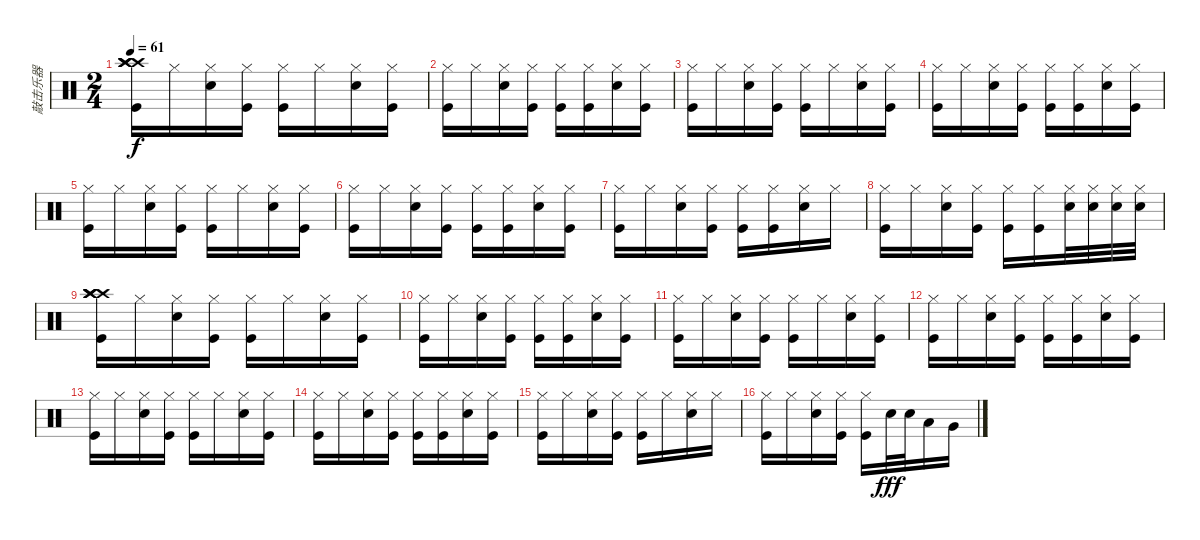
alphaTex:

\track ("敲击乐器" "敲击乐器") {instrument percussion}
\staff {score}
\articulation defaults
\ts (2 4)
\tempo 61
\clef neutral
\ks c
("Crash high (hit)" "Crash high (hit)" "Crash high (hit)" "Crash high (hit)" "Kick (hit)").16{dy f} "Hi-Hat (closed)".16 ("Hi-Hat (closed)" "Snare (hit) 2").16 ("Hi-Hat (closed)" "Kick (hit)").16 ("Hi-Hat (closed)" "Kick (hit)").16 "Hi-Hat (closed)".16 ("Hi-Hat (closed)" "Snare (hit) 2").16 ("Hi-Hat (closed)" "Kick (hit)").16 |
("Hi-Hat (closed)" "Kick (hit)").16 "Hi-Hat (closed)".16 ("Hi-Hat (closed)" "Snare (hit) 2").16 ("Hi-Hat (closed)" "Kick (hit)").16 ("Hi-Hat (closed)" "Kick (hit)").16 ("Hi-Hat (closed)" "Kick (hit)").16 ("Hi-Hat (closed)" "Snare (hit) 2").16 ("Hi-Hat (closed)" "Kick (hit)").16 |
("Hi-Hat (closed)" "Kick (hit)").16 "Hi-Hat (closed)".16 ("Hi-Hat (closed)" "Snare (hit) 2").16 ("Hi-Hat (closed)" "Kick (hit)").16 ("Hi-Hat (closed)" "Kick (hit)").16 "Hi-Hat (closed)".16 ("Hi-Hat (closed)" "Snare (hit) 2").16 ("Hi-Hat (closed)" "Kick (hit)").16 |
("Hi-Hat (closed)" "Kick (hit)").16 "Hi-Hat (closed)".16 ("Hi-Hat (closed)" "Snare (hit) 2").16 ("Hi-Hat (closed)" "Kick (hit)").16 ("Hi-Hat (closed)" "Kick (hit)").16 ("Hi-Hat (closed)" "Kick (hit)").16 ("Hi-Hat (closed)" "Snare (hit) 2").16 ("Hi-Hat (closed)" "Kick (hit)").16 |
("Hi-Hat (closed)" "Kick (hit)").16 "Hi-Hat (closed)".16 ("Hi-Hat (closed)" "Snare (hit) 2").16 ("Hi-Hat (closed)" "Kick (hit)").16 ("Hi-Hat (closed)" "Kick (hit)").16 "Hi-Hat (closed)".16 ("Hi-Hat (closed)" "Snare (hit) 2").16 ("Hi-Hat (closed)" "Kick (hit)").16 |
("Hi-Hat (closed)" "Kick (hit)").16 "Hi-Hat (closed)".16 ("Hi-Hat (closed)" "Snare (hit) 2").16 ("Hi-Hat (closed)" "Kick (hit)").16 ("Hi-Hat (closed)" "Kick (hit)").16 ("Hi-Hat (closed)" "Kick (hit)").16 ("Hi-Hat (closed)" "Snare (hit) 2").16 ("Hi-Hat (closed)" "Kick (hit)").16 |
("Hi-Hat (closed)" "Kick (hit)").16 "Hi-Hat (closed)".16 ("Hi-Hat (closed)" "Snare (hit) 2").16 ("Hi-Hat (closed)" "Kick (hit)").16 ("Hi-Hat (closed)" "Kick (hit)").16 ("Hi-Hat (closed)" "Kick (hit)").16 ("Hi-Hat (closed)" "Snare (hit) 2").16 "Hi-Hat (closed)".16 |
("Hi-Hat (closed)" "Kick (hit)").16 "Hi-Hat (closed)".16 ("Hi-Hat (closed)" "Snare (hit) 2").16 ("Hi-Hat (closed)" "Kick (hit)").16 ("Hi-Hat (closed)" "Kick (hit)").16 ("Hi-Hat (closed)" "Kick (hit)").16 ("Hi-Hat (closed)" "Snare (hit) 2").32 ("Hi-Hat (closed)" "Snare (hit) 2").32 ("Hi-Hat (closed)" "Snare (hit) 2").32 ("Hi-Hat (closed)" "Snare (hit) 2").32 |
("Crash high (hit)" "Crash high (hit)" "Crash high (hit)" "Crash high (hit)" "Kick (hit)").16 "Hi-Hat (closed)".16 ("Hi-Hat (closed)" "Snare (hit) 2").16 ("Hi-Hat (closed)" "Kick (hit)").16 ("Hi-Hat (closed)" "Kick (hit)").16 "Hi-Hat (closed)".16 ("Hi-Hat (closed)" "Snare (hit) 2").16 ("Hi-Hat (closed)" "Kick (hit)").16 |
("Hi-Hat (closed)" "Kick (hit)").16 "Hi-Hat (closed)".16 ("Hi-Hat (closed)" "Snare (hit) 2").16 ("Hi-Hat (closed)" "Kick (hit)").16 ("Hi-Hat (closed)" "Kick (hit)").16 ("Hi-Hat (closed)" "Kick (hit)").16 ("Hi-Hat (closed)" "Snare (hit) 2").16 ("Hi-Hat (closed)" "Kick (hit)").16 |
("Hi-Hat (closed)" "Kick (hit)").16 "Hi-Hat (closed)".16 ("Hi-Hat (closed)" "Snare (hit) 2").16 ("Hi-Hat (closed)" "Kick (hit)").16 ("Hi-Hat (closed)" "Kick (hit)").16 "Hi-Hat (closed)".16 ("Hi-Hat (closed)" "Snare (hit) 2").16 ("Hi-Hat (closed)" "Kick (hit)").16 |
("Hi-Hat (closed)" "Kick (hit)").16 "Hi-Hat (closed)".16 ("Hi-Hat (closed)" "Snare (hit) 2").16 ("Hi-Hat (closed)" "Kick (hit)").16 ("Hi-Hat (closed)" "Kick (hit)").16 ("Hi-Hat (closed)" "Kick (hit)").16 ("Hi-Hat (closed)" "Snare (hit) 2").16 ("Hi-Hat (closed)" "Kick (hit)").16 |
("Hi-Hat (closed)" "Kick (hit)").16 "Hi-Hat (closed)".16 ("Hi-Hat (closed)" "Snare (hit) 2").16 ("Hi-Hat (closed)" "Kick (hit)").16 ("Hi-Hat (closed)" "Kick (hit)").16 "Hi-Hat (closed)".16 ("Hi-Hat (closed)" "Snare (hit) 2").16 ("Hi-Hat (closed)" "Kick (hit)").16 |
("Hi-Hat (closed)" "Kick (hit)").16 "Hi-Hat (closed)".16 ("Hi-Hat (closed)" "Snare (hit) 2").16 ("Hi-Hat (closed)" "Kick (hit)").16 ("Hi-Hat (closed)" "Kick (hit)").16 ("Hi-Hat (closed)" "Kick (hit)").16 ("Hi-Hat (closed)" "Snare (hit) 2").16 ("Hi-Hat (closed)" "Kick (hit)").16 |
("Hi-Hat (closed)" "Kick (hit)").16 "Hi-Hat (closed)".16 ("Hi-Hat (closed)" "Snare (hit) 2").16 ("Hi-Hat (closed)" "Kick (hit)").16 ("Hi-Hat (closed)" "Kick (hit)").16 "Hi-Hat (closed)".16 ("Hi-Hat (closed)" "Snare (hit) 2").16 "Hi-Hat (closed)".16 |
("Hi-Hat (closed)" "Kick (hit)").16 "Hi-Hat (closed)".16 ("Hi-Hat (closed)" "Snare (hit) 2").16 ("Hi-Hat (closed)" "Kick (hit)").16 ("Hi-Hat (closed)" "Kick (hit)").16 "Snare (hit) 2".32{dy fff} "Snare (hit) 2".32 "Low Tom (hit)".16 "Very Low Tom (hit)".16
